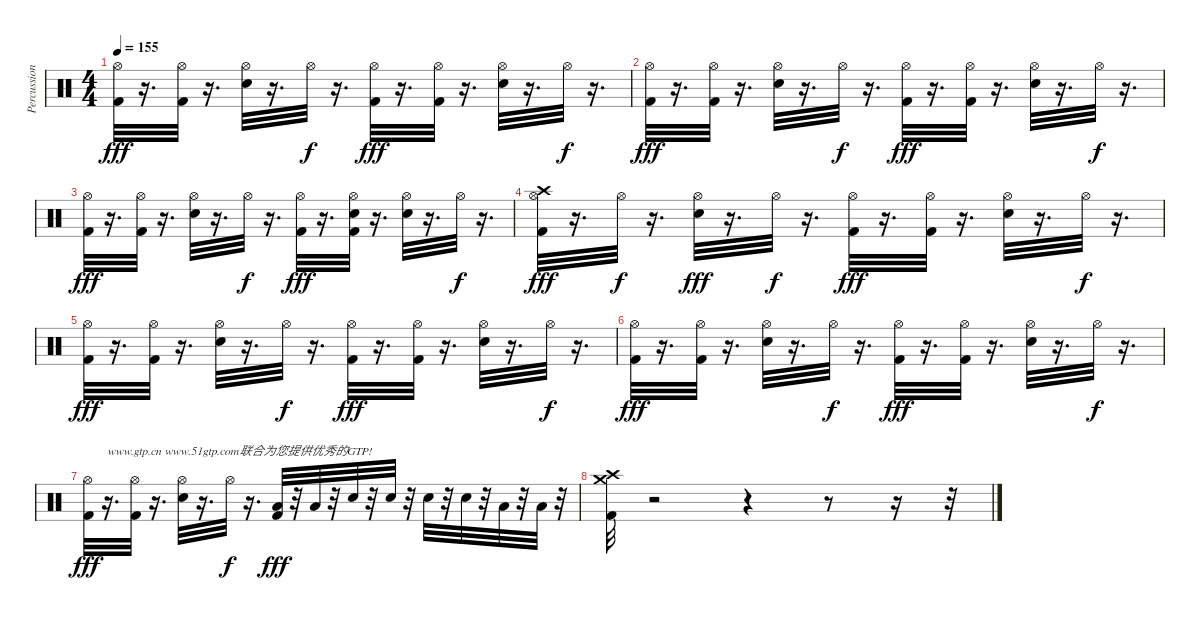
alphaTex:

\track ("Percussions" "Percussion") {instrument percussion}
\staff {score}
\articulation defaults
\ts (4 4)
\tempo 155
\clef neutral
\ks c
("Hi-Hat (open)" "Kick (hit) 2").32{dy fff} r.16{d} ("Hi-Hat (open)" "Kick (hit) 2").32 r.16{d} ("Hi-Hat (open)" "Snare (hit) 2").32 r.16{d} "Hi-Hat (open)".32{dy f} r.16{d} ("Hi-Hat (open)" "Kick (hit) 2").32{dy fff} r.16{d} ("Hi-Hat (open)" "Kick (hit) 2").32 r.16{d} ("Hi-Hat (open)" "Snare (hit) 2").32 r.16{d} "Hi-Hat (open)".32{dy f} r.16{d} |
("Hi-Hat (open)" "Kick (hit) 2").32{dy fff} r.16{d} ("Hi-Hat (open)" "Kick (hit) 2").32 r.16{d} ("Hi-Hat (open)" "Snare (hit) 2").32 r.16{d} "Hi-Hat (open)".32{dy f} r.16{d} ("Hi-Hat (open)" "Kick (hit) 2").32{dy fff} r.16{d} ("Hi-Hat (open)" "Kick (hit) 2").32 r.16{d} ("Hi-Hat (open)" "Snare (hit) 2").32 r.16{d} "Hi-Hat (open)".32{dy f} r.16{d} |
("Hi-Hat (open)" "Kick (hit) 2").32{dy fff} r.16{d} ("Hi-Hat (open)" "Kick (hit) 2").32 r.16{d} ("Hi-Hat (open)" "Snare (hit) 2").32 r.16{d} "Hi-Hat (open)".32{dy f} r.16{d} ("Hi-Hat (open)" "Kick (hit) 2").32{dy fff} r.16{d} ("Snare (hit) 2" "Hi-Hat (open)" "Kick (hit) 2").32 r.16{d} ("Hi-Hat (open)" "Snare (hit) 2").32 r.16{d} "Hi-Hat (open)".32{dy f} r.16{d} |
("Crash high (hit)" "Kick (hit) 2" "Hi-Hat (open)").32{dy fff} r.16{d} "Hi-Hat (open)".32{dy f} r.16{d} ("Snare (hit) 2" "Hi-Hat (open)").32{dy fff} r.16{d} "Hi-Hat (open)".32{dy f} r.16{d} ("Kick (hit) 2" "Hi-Hat (open)").32{dy fff} r.16{d} ("Kick (hit) 2" "Hi-Hat (open)").32 r.16{d} ("Snare (hit) 2" "Hi-Hat (open)").32 r.16{d} "Hi-Hat (open)".32{dy f} r.16{d} |
("Hi-Hat (open)" "Kick (hit) 2").32{dy fff} r.16{d} ("Hi-Hat (open)" "Kick (hit) 2").32 r.16{d} ("Hi-Hat (open)" "Snare (hit) 2").32 r.16{d} "Hi-Hat (open)".32{dy f} r.16{d} ("Hi-Hat (open)" "Kick (hit) 2").32{dy fff} r.16{d} ("Hi-Hat (open)" "Kick (hit) 2").32 r.16{d} ("Hi-Hat (open)" "Snare (hit) 2").32 r.16{d} "Hi-Hat (open)".32{dy f} r.16{d} |
("Hi-Hat (open)" "Kick (hit) 2").32{dy fff} r.16{d} ("Hi-Hat (open)" "Kick (hit) 2").32 r.16{d} ("Hi-Hat (open)" "Snare (hit) 2").32 r.16{d} "Hi-Hat (open)".32{dy f} r.16{d} ("Hi-Hat (open)" "Kick (hit) 2").32{dy fff} r.16{d} ("Hi-Hat (open)" "Kick (hit) 2").32 r.16{d} ("Hi-Hat (open)" "Snare (hit) 2").32 r.16{d} "Hi-Hat (open)".32{dy f} r.16{d} |
("Hi-Hat (open)" "Kick (hit) 2").32{dy fff} r.16{d txt "www.gtp.cn www.51gtp.com联合为您提供优秀的GTP!"} ("Hi-Hat (open)" "Kick (hit) 2").32 r.16{d} ("Hi-Hat (open)" "Snare (hit) 2").32 r.16{d} "Hi-Hat (open)".32{dy f} r.16{d} ("Low Floor Tom (hit)" "Kick (hit) 2").32{dy fff} r.32 "Low Floor Tom (hit)".32 r.32 "Snare (hit) 2".32 r.32 "Snare (hit) 2".32 r.32 "Snare (hit) 2".32 r.32 "Snare (hit) 2".32 r.32 "Low Tom (hit)".32 r.32 "Low Tom (hit)".32 r.32 |
("Crash medium (hit)" "Crash high (hit)" "Kick (hit) 2").32 r.2 r.4 r.8 r.16 r.32
